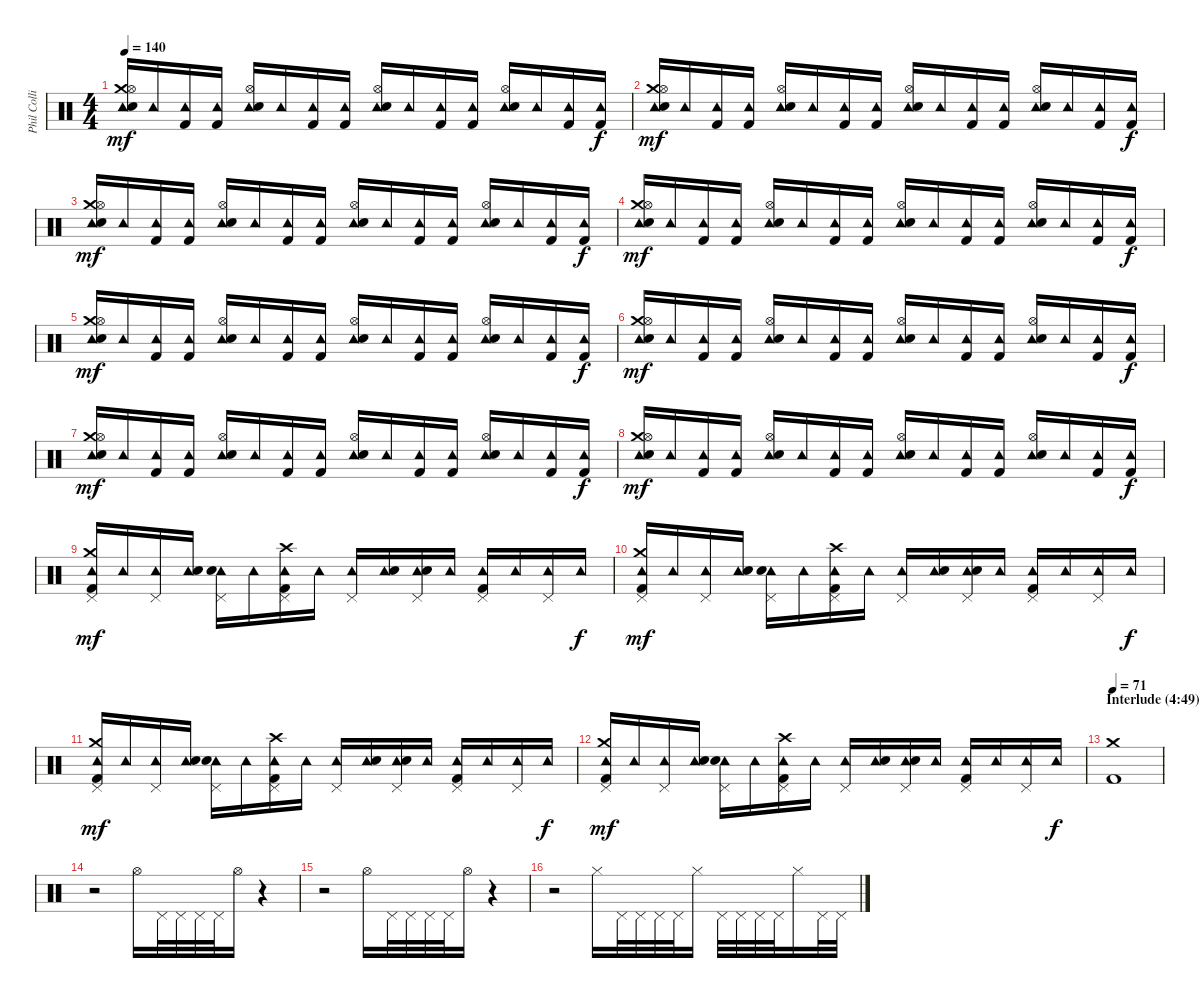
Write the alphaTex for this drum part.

\track ("Phil Collins (drums)" "Phil Colli") {instrument percussion}
\staff {score}
\articulation defaults
\ts (4 4)
\tempo 140
\clef neutral
\ks c
("Tambourine (hit)" "Crash medium (hit)" "Hi-Hat (open)" "Electric Snare (hit)").16{dy mf} "Tambourine (hit)".16 ("Tambourine (hit)" "Kick (hit) 2").16 ("Tambourine (hit)" "Kick (hit) 2").16 ("Tambourine (hit)" "Hi-Hat (open)" "Electric Snare (hit)").16 "Tambourine (hit)".16 ("Tambourine (hit)" "Kick (hit) 2").16 ("Tambourine (hit)" "Kick (hit) 2").16 ("Tambourine (hit)" "Hi-Hat (open)" "Electric Snare (hit)").16 "Tambourine (hit)".16 ("Tambourine (hit)" "Kick (hit) 2").16 ("Tambourine (hit)" "Kick (hit) 2").16 ("Tambourine (hit)" "Hi-Hat (open)" "Electric Snare (hit)").16 "Tambourine (hit)".16 ("Tambourine (hit)" "Kick (hit) 2").16 ("Tambourine (hit)" "Kick (hit) 2").16{dy f} |
("Tambourine (hit)" "Crash medium (hit)" "Hi-Hat (open)" "Electric Snare (hit)").16{dy mf} "Tambourine (hit)".16 ("Tambourine (hit)" "Kick (hit) 2").16 ("Tambourine (hit)" "Kick (hit) 2").16 ("Tambourine (hit)" "Hi-Hat (open)" "Electric Snare (hit)").16 "Tambourine (hit)".16 ("Tambourine (hit)" "Kick (hit) 2").16 ("Tambourine (hit)" "Kick (hit) 2").16 ("Tambourine (hit)" "Hi-Hat (open)" "Electric Snare (hit)").16 "Tambourine (hit)".16 ("Tambourine (hit)" "Kick (hit) 2").16 ("Tambourine (hit)" "Kick (hit) 2").16 ("Tambourine (hit)" "Hi-Hat (open)" "Electric Snare (hit)").16 "Tambourine (hit)".16 ("Tambourine (hit)" "Kick (hit) 2").16 ("Tambourine (hit)" "Kick (hit) 2").16{dy f} |
("Tambourine (hit)" "Crash medium (hit)" "Hi-Hat (open)" "Electric Snare (hit)").16{dy mf} "Tambourine (hit)".16 ("Tambourine (hit)" "Kick (hit) 2").16 ("Tambourine (hit)" "Kick (hit) 2").16 ("Tambourine (hit)" "Hi-Hat (open)" "Electric Snare (hit)").16 "Tambourine (hit)".16 ("Tambourine (hit)" "Kick (hit) 2").16 ("Tambourine (hit)" "Kick (hit) 2").16 ("Tambourine (hit)" "Hi-Hat (open)" "Electric Snare (hit)").16 "Tambourine (hit)".16 ("Tambourine (hit)" "Kick (hit) 2").16 ("Tambourine (hit)" "Kick (hit) 2").16 ("Tambourine (hit)" "Hi-Hat (open)" "Electric Snare (hit)").16 "Tambourine (hit)".16 ("Tambourine (hit)" "Kick (hit) 2").16 ("Tambourine (hit)" "Kick (hit) 2").16{dy f} |
("Tambourine (hit)" "Crash medium (hit)" "Hi-Hat (open)" "Electric Snare (hit)").16{dy mf} "Tambourine (hit)".16 ("Tambourine (hit)" "Kick (hit) 2").16 ("Tambourine (hit)" "Kick (hit) 2").16 ("Tambourine (hit)" "Hi-Hat (open)" "Electric Snare (hit)").16 "Tambourine (hit)".16 ("Tambourine (hit)" "Kick (hit) 2").16 ("Tambourine (hit)" "Kick (hit) 2").16 ("Tambourine (hit)" "Hi-Hat (open)" "Electric Snare (hit)").16 "Tambourine (hit)".16 ("Tambourine (hit)" "Kick (hit) 2").16 ("Tambourine (hit)" "Kick (hit) 2").16 ("Tambourine (hit)" "Hi-Hat (open)" "Electric Snare (hit)").16 "Tambourine (hit)".16 ("Tambourine (hit)" "Kick (hit) 2").16 ("Tambourine (hit)" "Kick (hit) 2").16{dy f} |
("Tambourine (hit)" "Crash medium (hit)" "Hi-Hat (open)" "Electric Snare (hit)").16{dy mf} "Tambourine (hit)".16 ("Tambourine (hit)" "Kick (hit) 2").16 ("Tambourine (hit)" "Kick (hit) 2").16 ("Tambourine (hit)" "Hi-Hat (open)" "Electric Snare (hit)").16 "Tambourine (hit)".16 ("Tambourine (hit)" "Kick (hit) 2").16 ("Tambourine (hit)" "Kick (hit) 2").16 ("Tambourine (hit)" "Hi-Hat (open)" "Electric Snare (hit)").16 "Tambourine (hit)".16 ("Tambourine (hit)" "Kick (hit) 2").16 ("Tambourine (hit)" "Kick (hit) 2").16 ("Tambourine (hit)" "Hi-Hat (open)" "Electric Snare (hit)").16 "Tambourine (hit)".16 ("Tambourine (hit)" "Kick (hit) 2").16 ("Tambourine (hit)" "Kick (hit) 2").16{dy f} |
("Tambourine (hit)" "Crash medium (hit)" "Hi-Hat (open)" "Electric Snare (hit)").16{dy mf} "Tambourine (hit)".16 ("Tambourine (hit)" "Kick (hit) 2").16 ("Tambourine (hit)" "Kick (hit) 2").16 ("Tambourine (hit)" "Hi-Hat (open)" "Electric Snare (hit)").16 "Tambourine (hit)".16 ("Tambourine (hit)" "Kick (hit) 2").16 ("Tambourine (hit)" "Kick (hit) 2").16 ("Tambourine (hit)" "Hi-Hat (open)" "Electric Snare (hit)").16 "Tambourine (hit)".16 ("Tambourine (hit)" "Kick (hit) 2").16 ("Tambourine (hit)" "Kick (hit) 2").16 ("Tambourine (hit)" "Hi-Hat (open)" "Electric Snare (hit)").16 "Tambourine (hit)".16 ("Tambourine (hit)" "Kick (hit) 2").16 ("Tambourine (hit)" "Kick (hit) 2").16{dy f} |
("Tambourine (hit)" "Crash medium (hit)" "Hi-Hat (open)" "Electric Snare (hit)").16{dy mf} "Tambourine (hit)".16 ("Tambourine (hit)" "Kick (hit) 2").16 ("Tambourine (hit)" "Kick (hit) 2").16 ("Tambourine (hit)" "Hi-Hat (open)" "Electric Snare (hit)").16 "Tambourine (hit)".16 ("Tambourine (hit)" "Kick (hit) 2").16 ("Tambourine (hit)" "Kick (hit) 2").16 ("Tambourine (hit)" "Hi-Hat (open)" "Electric Snare (hit)").16 "Tambourine (hit)".16 ("Tambourine (hit)" "Kick (hit) 2").16 ("Tambourine (hit)" "Kick (hit) 2").16 ("Tambourine (hit)" "Hi-Hat (open)" "Electric Snare (hit)").16 "Tambourine (hit)".16 ("Tambourine (hit)" "Kick (hit) 2").16 ("Tambourine (hit)" "Kick (hit) 2").16{dy f} |
("Tambourine (hit)" "Crash medium (hit)" "Hi-Hat (open)" "Electric Snare (hit)").16{dy mf} "Tambourine (hit)".16 ("Tambourine (hit)" "Kick (hit) 2").16 ("Tambourine (hit)" "Kick (hit) 2").16 ("Tambourine (hit)" "Hi-Hat (open)" "Electric Snare (hit)").16 "Tambourine (hit)".16 ("Tambourine (hit)" "Kick (hit) 2").16 ("Tambourine (hit)" "Kick (hit) 2").16 ("Tambourine (hit)" "Hi-Hat (open)" "Electric Snare (hit)").16 "Tambourine (hit)".16 ("Tambourine (hit)" "Kick (hit) 2").16 ("Tambourine (hit)" "Kick (hit) 2").16 ("Tambourine (hit)" "Hi-Hat (open)" "Electric Snare (hit)").16 "Tambourine (hit)".16 ("Tambourine (hit)" "Kick (hit) 2").16 ("Tambourine (hit)" "Kick (hit) 2").16{dy f} |
("Tambourine (hit)" "Crash medium (hit)" "Pedal Hi-Hat (hit)" "Kick (hit) 2").16{dy mf} "Tambourine (hit)".16 ("Tambourine (hit)" "Pedal Hi-Hat (hit)").16 ("Tambourine (hit)" "Electric Snare (hit)").16 ("Tambourine (hit)" "Pedal Hi-Hat (hit)" "Electric Snare (hit)").16 "Tambourine (hit)".16 ("Tambourine (hit)" "Crash high (hit)" "Pedal Hi-Hat (hit)" "Kick (hit) 2").16 "Tambourine (hit)".16 ("Tambourine (hit)" "Pedal Hi-Hat (hit)").16 ("Tambourine (hit)" "Electric Snare (hit)").16 ("Tambourine (hit)" "Pedal Hi-Hat (hit)" "Electric Snare (hit)").16 "Tambourine (hit)".16 ("Tambourine (hit)" "Pedal Hi-Hat (hit)" "Kick (hit) 2").16 "Tambourine (hit)".16 ("Tambourine (hit)" "Pedal Hi-Hat (hit)").16 "Tambourine (hit)".16{dy f} |
("Tambourine (hit)" "Crash medium (hit)" "Pedal Hi-Hat (hit)" "Kick (hit) 2").16{dy mf} "Tambourine (hit)".16 ("Tambourine (hit)" "Pedal Hi-Hat (hit)").16 ("Tambourine (hit)" "Electric Snare (hit)").16 ("Tambourine (hit)" "Pedal Hi-Hat (hit)" "Electric Snare (hit)").16 "Tambourine (hit)".16 ("Tambourine (hit)" "Crash high (hit)" "Pedal Hi-Hat (hit)" "Kick (hit) 2").16 "Tambourine (hit)".16 ("Tambourine (hit)" "Pedal Hi-Hat (hit)").16 ("Tambourine (hit)" "Electric Snare (hit)").16 ("Tambourine (hit)" "Pedal Hi-Hat (hit)" "Electric Snare (hit)").16 "Tambourine (hit)".16 ("Tambourine (hit)" "Pedal Hi-Hat (hit)" "Kick (hit) 2").16 "Tambourine (hit)".16 ("Tambourine (hit)" "Pedal Hi-Hat (hit)").16 "Tambourine (hit)".16{dy f} |
("Tambourine (hit)" "Crash medium (hit)" "Pedal Hi-Hat (hit)" "Kick (hit) 2").16{dy mf} "Tambourine (hit)".16 ("Tambourine (hit)" "Pedal Hi-Hat (hit)").16 ("Tambourine (hit)" "Electric Snare (hit)").16 ("Tambourine (hit)" "Pedal Hi-Hat (hit)" "Electric Snare (hit)").16 "Tambourine (hit)".16 ("Tambourine (hit)" "Crash high (hit)" "Pedal Hi-Hat (hit)" "Kick (hit) 2").16 "Tambourine (hit)".16 ("Tambourine (hit)" "Pedal Hi-Hat (hit)").16 ("Tambourine (hit)" "Electric Snare (hit)").16 ("Tambourine (hit)" "Pedal Hi-Hat (hit)" "Electric Snare (hit)").16 "Tambourine (hit)".16 ("Tambourine (hit)" "Pedal Hi-Hat (hit)" "Kick (hit) 2").16 "Tambourine (hit)".16 ("Tambourine (hit)" "Pedal Hi-Hat (hit)").16 "Tambourine (hit)".16{dy f} |
("Tambourine (hit)" "Crash medium (hit)" "Pedal Hi-Hat (hit)" "Kick (hit) 2").16{dy mf} "Tambourine (hit)".16 ("Tambourine (hit)" "Pedal Hi-Hat (hit)").16 ("Tambourine (hit)" "Electric Snare (hit)").16 ("Tambourine (hit)" "Pedal Hi-Hat (hit)" "Electric Snare (hit)").16 "Tambourine (hit)".16 ("Tambourine (hit)" "Crash high (hit)" "Pedal Hi-Hat (hit)" "Kick (hit) 2").16 "Tambourine (hit)".16 ("Tambourine (hit)" "Pedal Hi-Hat (hit)").16 ("Tambourine (hit)" "Electric Snare (hit)").16 ("Tambourine (hit)" "Pedal Hi-Hat (hit)" "Electric Snare (hit)").16 "Tambourine (hit)".16 ("Tambourine (hit)" "Pedal Hi-Hat (hit)" "Kick (hit) 2").16 "Tambourine (hit)".16 ("Tambourine (hit)" "Pedal Hi-Hat (hit)").16 "Tambourine (hit)".16{dy f} |
\section ("" "Interlude (4:49)")
\tempo 71
("Crash medium (hit)" "Kick (hit) 2").1 |
r.2{volume 7} "Hi-Hat (open)".16 "Pedal Hi-Hat (hit)".32 "Pedal Hi-Hat (hit)".32 "Pedal Hi-Hat (hit)".32 "Pedal Hi-Hat (hit)".32 "Hi-Hat (open)".16 r.4 |
r.2 "Hi-Hat (open)".16 "Pedal Hi-Hat (hit)".32 "Pedal Hi-Hat (hit)".32 "Pedal Hi-Hat (hit)".32 "Pedal Hi-Hat (hit)".32 "Hi-Hat (open)".16 r.4 |
r.2 "Hi-Hat (closed)".16 "Pedal Hi-Hat (hit)".32 "Pedal Hi-Hat (hit)".32 "Pedal Hi-Hat (hit)".32 "Pedal Hi-Hat (hit)".32 "Hi-Hat (closed)".16 "Pedal Hi-Hat (hit)".32 "Pedal Hi-Hat (hit)".32 "Pedal Hi-Hat (hit)".32 "Pedal Hi-Hat (hit)".32 "Hi-Hat (closed)".16 "Pedal Hi-Hat (hit)".32 "Pedal Hi-Hat (hit)".32
